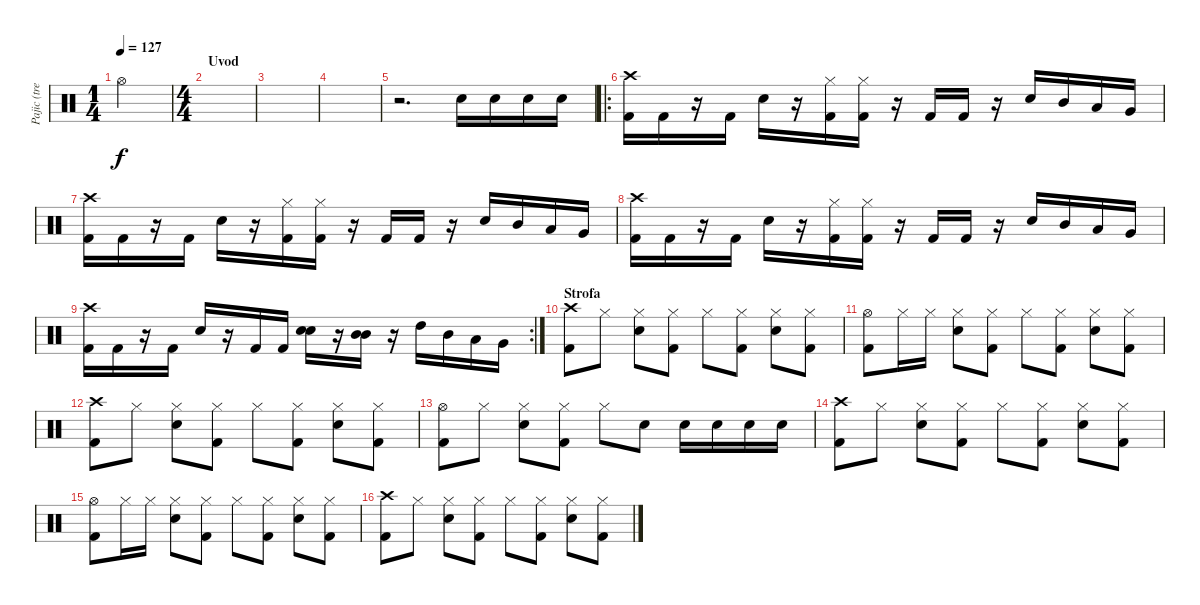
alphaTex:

\track ("Pajic (trebao)" "Pajic (tre") {instrument percussion}
\staff {score}
\articulation defaults
\ts (1 4)
\tempo 127
\clef neutral
\ks c "Hi-Hat (open)".4{dy f}
|
\ts (4 4)
\section ("" "Uvod")
|
|
|
r.2{d} "Electric Snare (hit)".16 "Electric Snare (hit)".16 "Electric Snare (hit)".16 "Electric Snare (hit)".16 |
\ro
("Crash high (hit)" "Kick (hit) 2").16 "Kick (hit) 2".16 r.16 "Kick (hit) 2".16 "Electric Snare (hit)".16 r.16 ("Hi-Hat (closed)" "Kick (hit) 2").16 ("Hi-Hat (closed)" "Kick (hit) 2").16 r.16 "Kick (hit) 2".16 "Kick (hit) 2".16 r.16 "Electric Snare (hit)".16 "Mid Tom (hit)".16 "Low Tom (hit)".16 "Very Low Tom (hit)".16 |
("Crash high (hit)" "Kick (hit) 2").16 "Kick (hit) 2".16 r.16 "Kick (hit) 2".16 "Electric Snare (hit)".16 r.16 ("Hi-Hat (closed)" "Kick (hit) 2").16 ("Hi-Hat (closed)" "Kick (hit) 2").16 r.16 "Kick (hit) 2".16 "Kick (hit) 2".16 r.16 "Electric Snare (hit)".16 "Mid Tom (hit)".16 "Low Tom (hit)".16 "Very Low Tom (hit)".16 |
("Crash high (hit)" "Kick (hit) 2").16 "Kick (hit) 2".16 r.16 "Kick (hit) 2".16 "Electric Snare (hit)".16 r.16 ("Hi-Hat (closed)" "Kick (hit) 2").16 ("Hi-Hat (closed)" "Kick (hit) 2").16 r.16 "Kick (hit) 2".16 "Kick (hit) 2".16 r.16 "Electric Snare (hit)".16 "Mid Tom (hit)".16 "Low Tom (hit)".16 "Very Low Tom (hit)".16 |
\rc 2
("Crash high (hit)" "Kick (hit) 2").16 "Kick (hit) 2".16 r.16 "Kick (hit) 2".16 "Electric Snare (hit)".16 r.16 "Kick (hit) 2".16 "Kick (hit) 2".16 ("Electric Snare (hit)" "Electric Snare (hit)").16{bd 60} r.16 ("Mid Tom (hit)" "Mid Tom (hit)").16{bd 60} r.16 "High Tom (hit)".16 "Mid Tom (hit)".16 "Low Tom (hit)".16 "Very Low Tom (hit)".16 |
\section ("" "Strofa")
("Crash high (hit)" "Kick (hit) 2").8 "Hi-Hat (closed)".8 ("Hi-Hat (closed)" "Electric Snare (hit)").8 ("Hi-Hat (closed)" "Kick (hit) 2").8 "Hi-Hat (closed)".8 ("Hi-Hat (closed)" "Kick (hit) 2").8 ("Hi-Hat (closed)" "Electric Snare (hit)").8 ("Hi-Hat (closed)" "Kick (hit) 2").8 |
("Hi-Hat (open)" "Kick (hit) 2").8 "Hi-Hat (closed)".16 "Hi-Hat (closed)".16 ("Hi-Hat (closed)" "Electric Snare (hit)").8 ("Hi-Hat (closed)" "Kick (hit) 2").8 "Hi-Hat (closed)".8 ("Hi-Hat (closed)" "Kick (hit) 2").8 ("Hi-Hat (closed)" "Electric Snare (hit)").8 ("Hi-Hat (closed)" "Kick (hit) 2").8 |
("Crash high (hit)" "Kick (hit) 2").8 "Hi-Hat (closed)".8 ("Hi-Hat (closed)" "Electric Snare (hit)").8 ("Hi-Hat (closed)" "Kick (hit) 2").8 "Hi-Hat (closed)".8 ("Hi-Hat (closed)" "Kick (hit) 2").8 ("Hi-Hat (closed)" "Electric Snare (hit)").8 ("Hi-Hat (closed)" "Kick (hit) 2").8 |
("Hi-Hat (open)" "Kick (hit) 2").8 "Hi-Hat (closed)".8 ("Hi-Hat (closed)" "Electric Snare (hit)").8 ("Hi-Hat (closed)" "Kick (hit) 2").8 "Hi-Hat (closed)".8 "Electric Snare (hit)".8 "Electric Snare (hit)".16 "Electric Snare (hit)".16 "Electric Snare (hit)".16 "Electric Snare (hit)".16 |
("Crash high (hit)" "Kick (hit) 2").8 "Hi-Hat (closed)".8 ("Hi-Hat (closed)" "Electric Snare (hit)").8 ("Hi-Hat (closed)" "Kick (hit) 2").8 "Hi-Hat (closed)".8 ("Hi-Hat (closed)" "Kick (hit) 2").8 ("Hi-Hat (closed)" "Electric Snare (hit)").8 ("Hi-Hat (closed)" "Kick (hit) 2").8 |
("Hi-Hat (open)" "Kick (hit) 2").8 "Hi-Hat (closed)".16 "Hi-Hat (closed)".16 ("Hi-Hat (closed)" "Electric Snare (hit)").8 ("Hi-Hat (closed)" "Kick (hit) 2").8 "Hi-Hat (closed)".8 ("Hi-Hat (closed)" "Kick (hit) 2").8 ("Hi-Hat (closed)" "Electric Snare (hit)").8 ("Hi-Hat (closed)" "Kick (hit) 2").8 |
("Crash high (hit)" "Kick (hit) 2").8 "Hi-Hat (closed)".8 ("Hi-Hat (closed)" "Electric Snare (hit)").8 ("Hi-Hat (closed)" "Kick (hit) 2").8 "Hi-Hat (closed)".8 ("Hi-Hat (closed)" "Kick (hit) 2").8 ("Hi-Hat (closed)" "Electric Snare (hit)").8 ("Hi-Hat (closed)" "Kick (hit) 2").8
